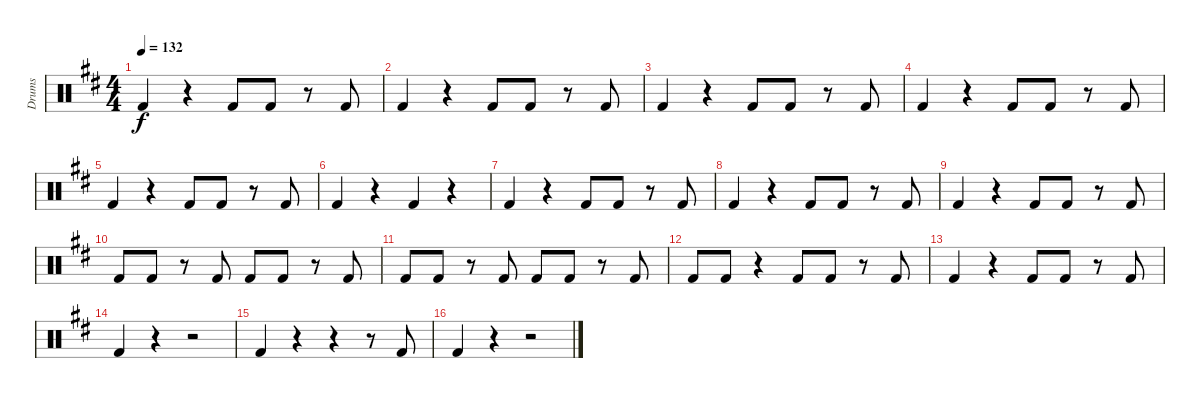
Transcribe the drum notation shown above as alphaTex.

\track ("Drums" "Drums") {instrument percussion}
\staff {score}
\articulation defaults
\ts (4 4)
\tempo 132
\clef neutral
\ks d "Kick (hit) 2".4{dy f}
r.4 "Kick (hit) 2".8 "Kick (hit) 2".8 r.8 "Kick (hit) 2".8 |
"Kick (hit) 2".4 r.4 "Kick (hit) 2".8 "Kick (hit) 2".8 r.8 "Kick (hit) 2".8 |
"Kick (hit) 2".4 r.4 "Kick (hit) 2".8 "Kick (hit) 2".8 r.8 "Kick (hit) 2".8 |
"Kick (hit) 2".4 r.4 "Kick (hit) 2".8 "Kick (hit) 2".8 r.8 "Kick (hit) 2".8 |
"Kick (hit) 2".4 r.4 "Kick (hit) 2".8 "Kick (hit) 2".8 r.8 "Kick (hit) 2".8 |
"Kick (hit) 2".4 r.4 "Kick (hit) 2".4 r.4 |
"Kick (hit) 2".4 r.4 "Kick (hit) 2".8 "Kick (hit) 2".8 r.8 "Kick (hit) 2".8 |
"Kick (hit) 2".4 r.4 "Kick (hit) 2".8 "Kick (hit) 2".8 r.8 "Kick (hit) 2".8 |
"Kick (hit) 2".4 r.4 "Kick (hit) 2".8 "Kick (hit) 2".8 r.8 "Kick (hit) 2".8 |
"Kick (hit) 2".8 "Kick (hit) 2".8 r.8 "Kick (hit) 2".8 "Kick (hit) 2".8 "Kick (hit) 2".8 r.8 "Kick (hit) 2".8 |
"Kick (hit) 2".8 "Kick (hit) 2".8 r.8 "Kick (hit) 2".8 "Kick (hit) 2".8 "Kick (hit) 2".8 r.8 "Kick (hit) 2".8 |
"Kick (hit) 2".8 "Kick (hit) 2".8 r.4 "Kick (hit) 2".8 "Kick (hit) 2".8 r.8 "Kick (hit) 2".8 |
"Kick (hit) 2".4 r.4 "Kick (hit) 2".8 "Kick (hit) 2".8 r.8 "Kick (hit) 2".8 |
"Kick (hit) 2".4 r.4 r.2 |
"Kick (hit) 2".4 r.4 r.4 r.8 "Kick (hit) 2".8 |
"Kick (hit) 2".4 r.4 r.2
